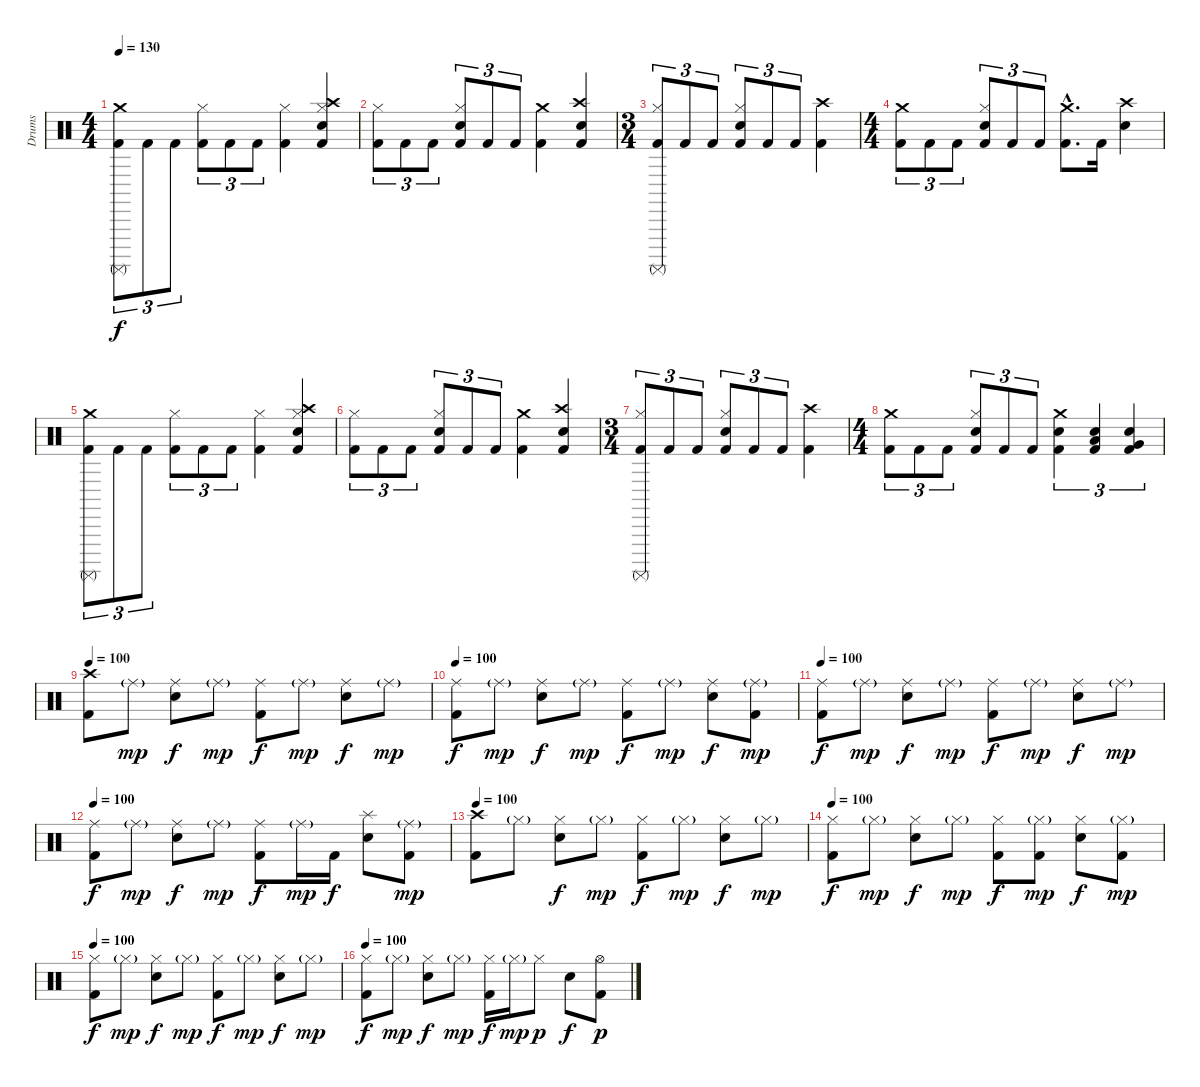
\track ("Drums" "Drums") {instrument percussion}
\staff {score}
\articulation defaults
\ts (4 4)
\tempo 130
\clef neutral
\ks c
("Crash medium (hit)" "Surdo (mute)" "Kick (hit) 2").8{tu (3 2) dy f} "Kick (hit) 2".8{tu (3 2)} "Kick (hit) 2".8{tu (3 2)} ("Hi-Hat (closed)" "Kick (hit) 2").8{tu (3 2)} "Kick (hit) 2".8{tu (3 2)} "Kick (hit) 2".8{tu (3 2)} ("Hi-Hat (closed)" "Kick (hit) 2").4 ("Crash high (hit)" "Electric Snare (hit)" "Hi-Hat (closed)" "Kick (hit) 2").4 |
("Hi-Hat (closed)" "Kick (hit) 2").8{tu (3 2)} "Kick (hit) 2".8{tu (3 2)} "Kick (hit) 2".8{tu (3 2)} ("Electric Snare (hit)" "Hi-Hat (closed)" "Kick (hit) 2").8{tu (3 2)} "Kick (hit) 2".8{tu (3 2)} "Kick (hit) 2".8{tu (3 2)} ("Crash medium (hit)" "Kick (hit) 2").4 ("Crash high (hit)" "Electric Snare (hit)" "Kick (hit) 2").4 |
\ts (3 4)
("Surdo (mute)" "Hi-Hat (closed)" "Kick (hit) 2").8{tu (3 2)} "Kick (hit) 2".8{tu (3 2)} "Kick (hit) 2".8{tu (3 2)} ("Electric Snare (hit)" "Hi-Hat (closed)" "Kick (hit) 2").8{tu (3 2)} "Kick (hit) 2".8{tu (3 2)} "Kick (hit) 2".8{tu (3 2)} ("Crash high (hit)" "Kick (hit) 2").4 |
\ts (4 4)
("Crash medium (hit)" "Kick (hit) 2").8{tu (3 2)} "Kick (hit) 2".8{tu (3 2)} "Kick (hit) 2".8{tu (3 2)} ("Electric Snare (hit)" "Hi-Hat (closed)" "Kick (hit) 2").8{tu (3 2)} "Kick (hit) 2".8{tu (3 2)} "Kick (hit) 2".8{tu (3 2)} ("Crash medium (hit)"{hac} "Kick (hit) 2"{hac}).8{d} "Kick (hit) 2".16 ("Crash high (hit)" "Electric Snare (hit)").4 |
("Crash medium (hit)" "Surdo (mute)" "Kick (hit) 2").8{tu (3 2)} "Kick (hit) 2".8{tu (3 2)} "Kick (hit) 2".8{tu (3 2)} ("Hi-Hat (closed)" "Kick (hit) 2").8{tu (3 2)} "Kick (hit) 2".8{tu (3 2)} "Kick (hit) 2".8{tu (3 2)} ("Hi-Hat (closed)" "Kick (hit) 2").4 ("Crash high (hit)" "Electric Snare (hit)" "Hi-Hat (closed)" "Kick (hit) 2").4 |
("Hi-Hat (closed)" "Kick (hit) 2").8{tu (3 2)} "Kick (hit) 2".8{tu (3 2)} "Kick (hit) 2".8{tu (3 2)} ("Electric Snare (hit)" "Hi-Hat (closed)" "Kick (hit) 2").8{tu (3 2)} "Kick (hit) 2".8{tu (3 2)} "Kick (hit) 2".8{tu (3 2)} ("Crash medium (hit)" "Kick (hit) 2").4 ("Crash high (hit)" "Electric Snare (hit)" "Kick (hit) 2").4 |
\ts (3 4)
("Surdo (mute)" "Hi-Hat (closed)" "Kick (hit) 2").8{tu (3 2)} "Kick (hit) 2".8{tu (3 2)} "Kick (hit) 2".8{tu (3 2)} ("Electric Snare (hit)" "Hi-Hat (closed)" "Kick (hit) 2").8{tu (3 2)} "Kick (hit) 2".8{tu (3 2)} "Kick (hit) 2".8{tu (3 2)} ("Crash high (hit)" "Kick (hit) 2").4 |
\ts (4 4)
("Crash medium (hit)" "Kick (hit) 2").8{tu (3 2)} "Kick (hit) 2".8{tu (3 2)} "Kick (hit) 2".8{tu (3 2)} ("Electric Snare (hit)" "Hi-Hat (closed)" "Kick (hit) 2").8{tu (3 2)} "Kick (hit) 2".8{tu (3 2)} "Kick (hit) 2".8{tu (3 2)} ("Crash medium (hit)" "Electric Snare (hit)" "Kick (hit) 2").4{tu (3 2)} ("Low Tom (hit)" "Electric Snare (hit)" "Kick (hit) 2").4{tu (3 2)} ("Very Low Tom (hit)" "Electric Snare (hit)" "Kick (hit) 2").4{tu (3 2)} |
\tempo 100
("Crash high (hit)" "Kick (hit) 2").8 "Ride (middle)"{g}.8{dy mp} ("Electric Snare (hit)" "Ride (middle)").8{dy f} "Ride (middle)"{g}.8{dy mp} ("Ride (middle)" "Kick (hit) 2").8{dy f} "Ride (middle)"{g}.8{dy mp} ("Electric Snare (hit)" "Ride (middle)").8{dy f} "Ride (middle)"{g}.8{dy mp} |
\tempo 100
("Ride (middle)" "Kick (hit) 2").8{dy f} "Ride (middle)"{g}.8{dy mp} ("Electric Snare (hit)" "Ride (middle)").8{dy f} "Ride (middle)"{g}.8{dy mp} ("Ride (middle)" "Kick (hit) 2").8{dy f} "Ride (middle)"{g}.8{dy mp} ("Electric Snare (hit)" "Ride (middle)").8{dy f} ("Ride (middle)"{g} "Kick (hit) 2").8{dy mp} |
\tempo 100
("Ride (middle)" "Kick (hit) 2").8{dy f} "Ride (middle)"{g}.8{dy mp} ("Electric Snare (hit)" "Ride (middle)").8{dy f} "Ride (middle)"{g}.8{dy mp} ("Ride (middle)" "Kick (hit) 2").8{dy f} "Ride (middle)"{g}.8{dy mp} ("Electric Snare (hit)" "Ride (middle)").8{dy f} "Ride (middle)"{g}.8{dy mp} |
\tempo 100
("Ride (middle)" "Kick (hit) 2").8{dy f} "Ride (middle)"{g}.8{dy mp} ("Electric Snare (hit)" "Ride (middle)").8{dy f} "Ride (middle)"{g}.8{dy mp} ("Ride (middle)" "Kick (hit) 2").8{dy f} "Ride (middle)"{g}.16{dy mp} "Kick (hit) 2".16{dy f} ("Electric Snare (hit)" "Splash (hit)").8 ("Ride (middle)"{g} "Kick (hit) 2").8{dy mp} |
\tempo 100
("Crash high (hit)" "Kick (hit) 2").8 "Hi-Hat (closed)"{g}.8 ("Electric Snare (hit)" "Hi-Hat (closed)").8{dy f} "Hi-Hat (closed)"{g}.8{dy mp} ("Hi-Hat (closed)" "Kick (hit) 2").8{dy f} "Hi-Hat (closed)"{g}.8{dy mp} ("Electric Snare (hit)" "Hi-Hat (closed)").8{dy f} "Hi-Hat (closed)"{g}.8{dy mp} |
\tempo 100
("Hi-Hat (closed)" "Kick (hit) 2").8{dy f} "Hi-Hat (closed)"{g}.8{dy mp} ("Electric Snare (hit)" "Hi-Hat (closed)").8{dy f} "Hi-Hat (closed)"{g}.8{dy mp} ("Hi-Hat (closed)" "Kick (hit) 2").8{dy f} ("Hi-Hat (closed)"{g} "Kick (hit) 2").8{dy mp} ("Electric Snare (hit)" "Hi-Hat (closed)").8{dy f} ("Hi-Hat (closed)"{g} "Kick (hit) 2").8{dy mp} |
\tempo 100
("Hi-Hat (closed)" "Kick (hit) 2").8{dy f} "Hi-Hat (closed)"{g}.8{dy mp} ("Electric Snare (hit)" "Hi-Hat (closed)").8{dy f} "Hi-Hat (closed)"{g}.8{dy mp} ("Hi-Hat (closed)" "Kick (hit) 2").8{dy f} "Hi-Hat (closed)"{g}.8{dy mp} ("Electric Snare (hit)" "Hi-Hat (closed)").8{dy f} "Hi-Hat (closed)"{g}.8{dy mp} |
\tempo 100
("Hi-Hat (closed)" "Kick (hit) 2").8{dy f} "Hi-Hat (closed)"{g}.8{dy mp} ("Electric Snare (hit)" "Hi-Hat (closed)").8{dy f} "Hi-Hat (closed)"{g}.8{dy mp} ("Hi-Hat (closed)" "Kick (hit) 2").16{dy f} "Hi-Hat (closed)"{g}.16{dy mp} "Hi-Hat (closed)".8{dy p} "Electric Snare (hit)".8{dy f} ("Hi-Hat (open)" "Kick (hit) 2").8{dy p}
